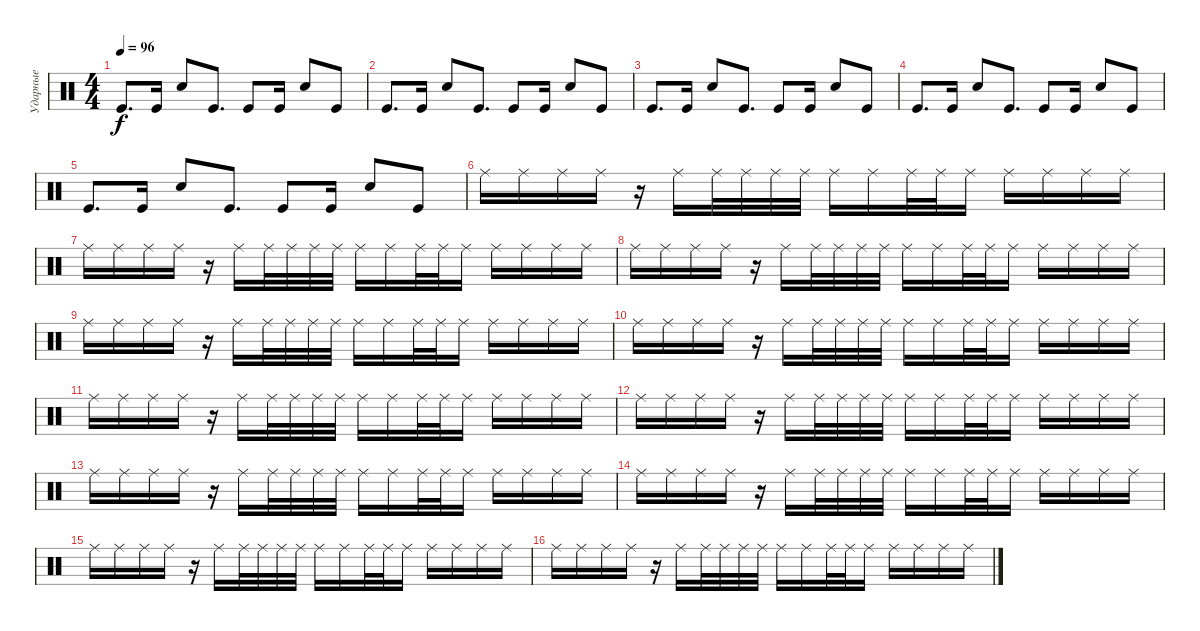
\track ("Ударные" "Ударные") {instrument percussion}
\staff {score}
\articulation defaults
\ts (4 4)
\tempo 96
\clef neutral
\ks c "Kick (hit)".8{d dy f} "Kick (hit)".16 "Electric Snare (hit)".8 "Kick (hit)".8{d} "Kick (hit)".8 "Kick (hit)".16 "Electric Snare (hit)".8 "Kick (hit)".8
|
"Kick (hit)".8{d} "Kick (hit)".16 "Electric Snare (hit)".8 "Kick (hit)".8{d} "Kick (hit)".8 "Kick (hit)".16 "Electric Snare (hit)".8 "Kick (hit)".8 |
"Kick (hit)".8{d} "Kick (hit)".16 "Electric Snare (hit)".8 "Kick (hit)".8{d} "Kick (hit)".8 "Kick (hit)".16 "Electric Snare (hit)".8 "Kick (hit)".8 |
"Kick (hit)".8{d} "Kick (hit)".16 "Electric Snare (hit)".8 "Kick (hit)".8{d} "Kick (hit)".8 "Kick (hit)".16 "Electric Snare (hit)".8 "Kick (hit)".8 |
"Kick (hit)".8{d} "Kick (hit)".16 "Electric Snare (hit)".8 "Kick (hit)".8{d} "Kick (hit)".8 "Kick (hit)".16 "Electric Snare (hit)".8 "Kick (hit)".8 |
"Ride (middle)".16 "Ride (middle)".16 "Ride (middle)".16 "Ride (middle)".16 r.16 "Ride (middle)".16 "Ride (middle)".32 "Ride (middle)".32 "Ride (middle)".32 "Ride (middle)".32 "Ride (middle)".16 "Ride (middle)".16 "Ride (middle)".32 "Ride (middle)".32 "Ride (middle)".16 "Ride (middle)".16 "Ride (middle)".16 "Ride (middle)".16 "Ride (middle)".16 |
"Ride (middle)".16 "Ride (middle)".16 "Ride (middle)".16 "Ride (middle)".16 r.16 "Ride (middle)".16 "Ride (middle)".32 "Ride (middle)".32 "Ride (middle)".32 "Ride (middle)".32 "Ride (middle)".16 "Ride (middle)".16 "Ride (middle)".32 "Ride (middle)".32 "Ride (middle)".16 "Ride (middle)".16 "Ride (middle)".16 "Ride (middle)".16 "Ride (middle)".16 |
"Ride (middle)".16 "Ride (middle)".16 "Ride (middle)".16 "Ride (middle)".16 r.16 "Ride (middle)".16 "Ride (middle)".32 "Ride (middle)".32 "Ride (middle)".32 "Ride (middle)".32 "Ride (middle)".16 "Ride (middle)".16 "Ride (middle)".32 "Ride (middle)".32 "Ride (middle)".16 "Ride (middle)".16 "Ride (middle)".16 "Ride (middle)".16 "Ride (middle)".16 |
"Ride (middle)".16 "Ride (middle)".16 "Ride (middle)".16 "Ride (middle)".16 r.16 "Ride (middle)".16 "Ride (middle)".32 "Ride (middle)".32 "Ride (middle)".32 "Ride (middle)".32 "Ride (middle)".16 "Ride (middle)".16 "Ride (middle)".32 "Ride (middle)".32 "Ride (middle)".16 "Ride (middle)".16 "Ride (middle)".16 "Ride (middle)".16 "Ride (middle)".16 |
"Ride (middle)".16 "Ride (middle)".16 "Ride (middle)".16 "Ride (middle)".16 r.16 "Ride (middle)".16 "Ride (middle)".32 "Ride (middle)".32 "Ride (middle)".32 "Ride (middle)".32 "Ride (middle)".16 "Ride (middle)".16 "Ride (middle)".32 "Ride (middle)".32 "Ride (middle)".16 "Ride (middle)".16 "Ride (middle)".16 "Ride (middle)".16 "Ride (middle)".16 |
"Ride (middle)".16 "Ride (middle)".16 "Ride (middle)".16 "Ride (middle)".16 r.16 "Ride (middle)".16 "Ride (middle)".32 "Ride (middle)".32 "Ride (middle)".32 "Ride (middle)".32 "Ride (middle)".16 "Ride (middle)".16 "Ride (middle)".32 "Ride (middle)".32 "Ride (middle)".16 "Ride (middle)".16 "Ride (middle)".16 "Ride (middle)".16 "Ride (middle)".16 |
"Ride (middle)".16 "Ride (middle)".16 "Ride (middle)".16 "Ride (middle)".16 r.16 "Ride (middle)".16 "Ride (middle)".32 "Ride (middle)".32 "Ride (middle)".32 "Ride (middle)".32 "Ride (middle)".16 "Ride (middle)".16 "Ride (middle)".32 "Ride (middle)".32 "Ride (middle)".16 "Ride (middle)".16 "Ride (middle)".16 "Ride (middle)".16 "Ride (middle)".16 |
"Ride (middle)".16 "Ride (middle)".16 "Ride (middle)".16 "Ride (middle)".16 r.16 "Ride (middle)".16 "Ride (middle)".32 "Ride (middle)".32 "Ride (middle)".32 "Ride (middle)".32 "Ride (middle)".16 "Ride (middle)".16 "Ride (middle)".32 "Ride (middle)".32 "Ride (middle)".16 "Ride (middle)".16 "Ride (middle)".16 "Ride (middle)".16 "Ride (middle)".16 |
"Ride (middle)".16 "Ride (middle)".16 "Ride (middle)".16 "Ride (middle)".16 r.16 "Ride (middle)".16 "Ride (middle)".32 "Ride (middle)".32 "Ride (middle)".32 "Ride (middle)".32 "Ride (middle)".16 "Ride (middle)".16 "Ride (middle)".32 "Ride (middle)".32 "Ride (middle)".16 "Ride (middle)".16 "Ride (middle)".16 "Ride (middle)".16 "Ride (middle)".16 |
"Ride (middle)".16 "Ride (middle)".16 "Ride (middle)".16 "Ride (middle)".16 r.16 "Ride (middle)".16 "Ride (middle)".32 "Ride (middle)".32 "Ride (middle)".32 "Ride (middle)".32 "Ride (middle)".16 "Ride (middle)".16 "Ride (middle)".32 "Ride (middle)".32 "Ride (middle)".16 "Ride (middle)".16 "Ride (middle)".16 "Ride (middle)".16 "Ride (middle)".16 |
"Ride (middle)".16 "Ride (middle)".16 "Ride (middle)".16 "Ride (middle)".16 r.16 "Ride (middle)".16 "Ride (middle)".32 "Ride (middle)".32 "Ride (middle)".32 "Ride (middle)".32 "Ride (middle)".16 "Ride (middle)".16 "Ride (middle)".32 "Ride (middle)".32 "Ride (middle)".16 "Ride (middle)".16 "Ride (middle)".16 "Ride (middle)".16 "Ride (middle)".16
